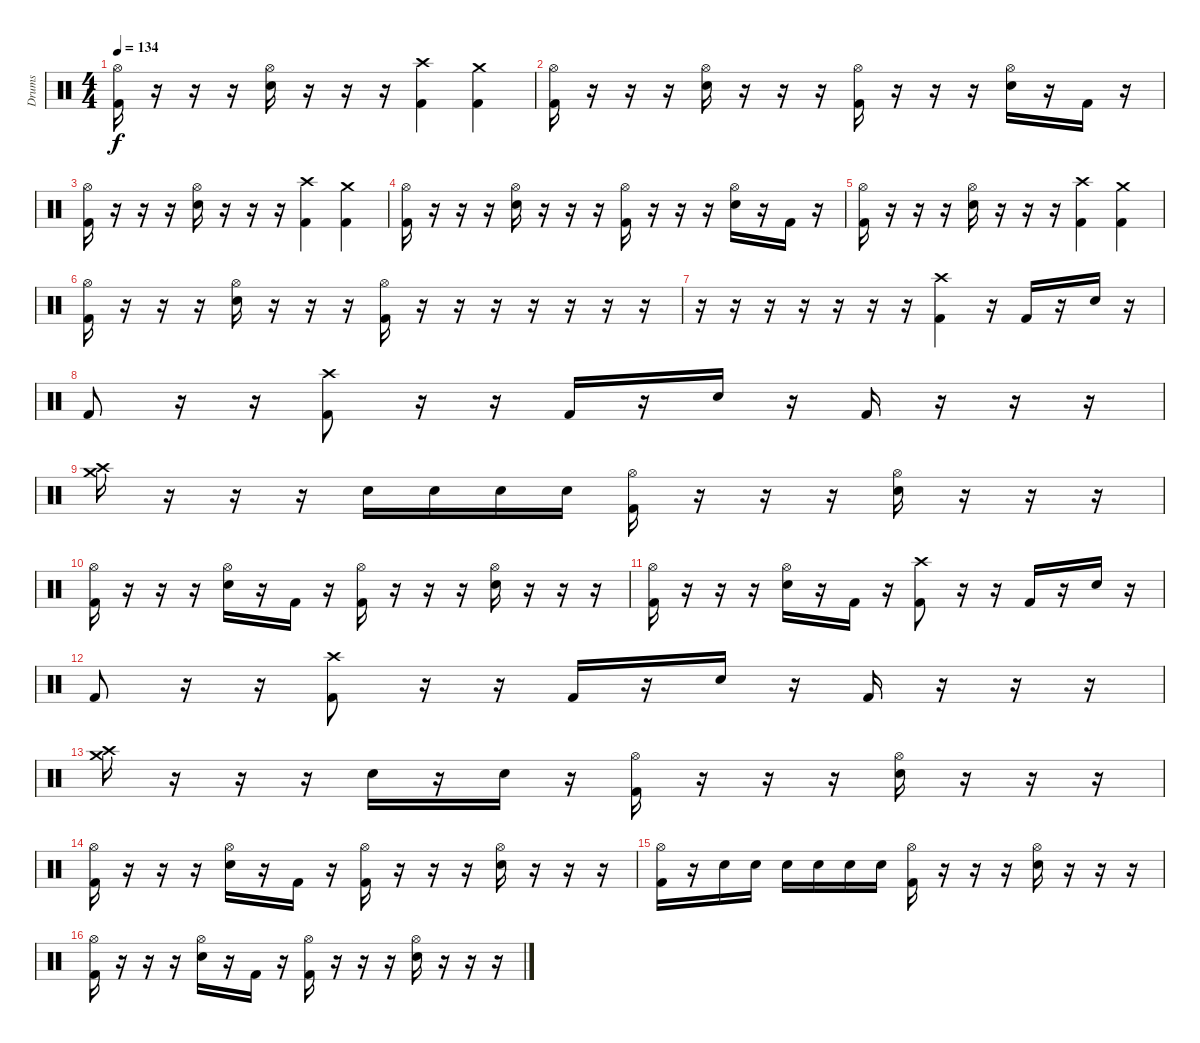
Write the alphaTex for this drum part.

\track ("Drums" "Drums") {instrument percussion}
\staff {score}
\articulation defaults
\ts (4 4)
\tempo 134
\clef neutral
\ks c
("Kick (hit) 2" "Hi-Hat (open)").16{dy f} r.16 r.16 r.16 ("Snare (hit) 2" "Hi-Hat (open)").16 r.16 r.16 r.16 ("Crash high (hit)" "Kick (hit) 2").4 ("Crash medium (hit)" "Kick (hit) 2").4 |
("Kick (hit) 2" "Hi-Hat (open)").16 r.16 r.16 r.16 ("Snare (hit) 2" "Hi-Hat (open)").16 r.16 r.16 r.16 ("Kick (hit) 2" "Hi-Hat (open)").16 r.16 r.16 r.16 ("Snare (hit) 2" "Hi-Hat (open)").16 r.16 "Kick (hit) 2".16 r.16 |
("Kick (hit) 2" "Hi-Hat (open)").16 r.16 r.16 r.16 ("Snare (hit) 2" "Hi-Hat (open)").16 r.16 r.16 r.16 ("Crash high (hit)" "Kick (hit) 2").4 ("Crash medium (hit)" "Kick (hit) 2").4 |
("Kick (hit) 2" "Hi-Hat (open)").16 r.16 r.16 r.16 ("Snare (hit) 2" "Hi-Hat (open)").16 r.16 r.16 r.16 ("Kick (hit) 2" "Hi-Hat (open)").16 r.16 r.16 r.16 ("Snare (hit) 2" "Hi-Hat (open)").16 r.16 "Kick (hit) 2".16 r.16 |
("Kick (hit) 2" "Hi-Hat (open)").16 r.16 r.16 r.16 ("Snare (hit) 2" "Hi-Hat (open)").16 r.16 r.16 r.16 ("Crash high (hit)" "Kick (hit) 2").4 ("Crash medium (hit)" "Kick (hit) 2").4 |
("Kick (hit) 2" "Hi-Hat (open)").16 r.16 r.16 r.16 ("Snare (hit) 2" "Hi-Hat (open)").16 r.16 r.16 r.16 ("Kick (hit) 2" "Hi-Hat (open)").16 r.16 r.16 r.16 r.16 r.16 r.16 r.16 |
r.16 r.16 r.16 r.16 r.16 r.16 r.16 ("Crash high (hit)" "Kick (hit) 2").4 r.16 "Kick (hit) 2".16 r.16 "Snare (hit) 2".16 r.16 |
"Kick (hit) 2".8 r.16 r.16 ("Crash high (hit)" "Kick (hit) 2").8 r.16 r.16 "Kick (hit) 2".16 r.16 "Snare (hit) 2".16 r.16 "Kick (hit) 2".16 r.16 r.16 r.16 |
("Crash medium (hit)" "Crash high (hit)").16 r.16 r.16 r.16 "Snare (hit) 2".16 "Snare (hit) 2".16 "Snare (hit) 2".16 "Snare (hit) 2".16 ("Kick (hit) 2" "Hi-Hat (open)").16 r.16 r.16 r.16 ("Snare (hit) 2" "Hi-Hat (open)").16 r.16 r.16 r.16 |
("Kick (hit) 2" "Hi-Hat (open)").16 r.16 r.16 r.16 ("Snare (hit) 2" "Hi-Hat (open)").16 r.16 "Kick (hit) 2".16 r.16 ("Kick (hit) 2" "Hi-Hat (open)").16 r.16 r.16 r.16 ("Snare (hit) 2" "Hi-Hat (open)").16 r.16 r.16 r.16 |
("Kick (hit) 2" "Hi-Hat (open)").16 r.16 r.16 r.16 ("Snare (hit) 2" "Hi-Hat (open)").16 r.16 "Kick (hit) 2".16 r.16 ("Crash high (hit)" "Kick (hit) 2").8 r.16 r.16 "Kick (hit) 2".16 r.16 "Snare (hit) 2".16 r.16 |
"Kick (hit) 2".8 r.16 r.16 ("Crash high (hit)" "Kick (hit) 2").8 r.16 r.16 "Kick (hit) 2".16 r.16 "Snare (hit) 2".16 r.16 "Kick (hit) 2".16 r.16 r.16 r.16 |
("Crash medium (hit)" "Crash high (hit)").16 r.16 r.16 r.16 "Snare (hit) 2".16 r.16 "Snare (hit) 2".16 r.16 ("Kick (hit) 2" "Hi-Hat (open)").16 r.16 r.16 r.16 ("Snare (hit) 2" "Hi-Hat (open)").16 r.16 r.16 r.16 |
("Kick (hit) 2" "Hi-Hat (open)").16 r.16 r.16 r.16 ("Snare (hit) 2" "Hi-Hat (open)").16 r.16 "Kick (hit) 2".16 r.16 ("Kick (hit) 2" "Hi-Hat (open)").16 r.16 r.16 r.16 ("Snare (hit) 2" "Hi-Hat (open)").16 r.16 r.16 r.16 |
("Kick (hit) 2" "Hi-Hat (open)").16 r.16 "Snare (hit) 2".16 "Snare (hit) 2".16 "Snare (hit) 2".16 "Snare (hit) 2".16 "Snare (hit) 2".16 "Snare (hit) 2".16 ("Kick (hit) 2" "Hi-Hat (open)").16 r.16 r.16 r.16 ("Snare (hit) 2" "Hi-Hat (open)").16 r.16 r.16 r.16 |
("Kick (hit) 2" "Hi-Hat (open)").16 r.16 r.16 r.16 ("Snare (hit) 2" "Hi-Hat (open)").16 r.16 "Kick (hit) 2".16 r.16 ("Kick (hit) 2" "Hi-Hat (open)").16 r.16 r.16 r.16 ("Snare (hit) 2" "Hi-Hat (open)").16 r.16 r.16 r.16
